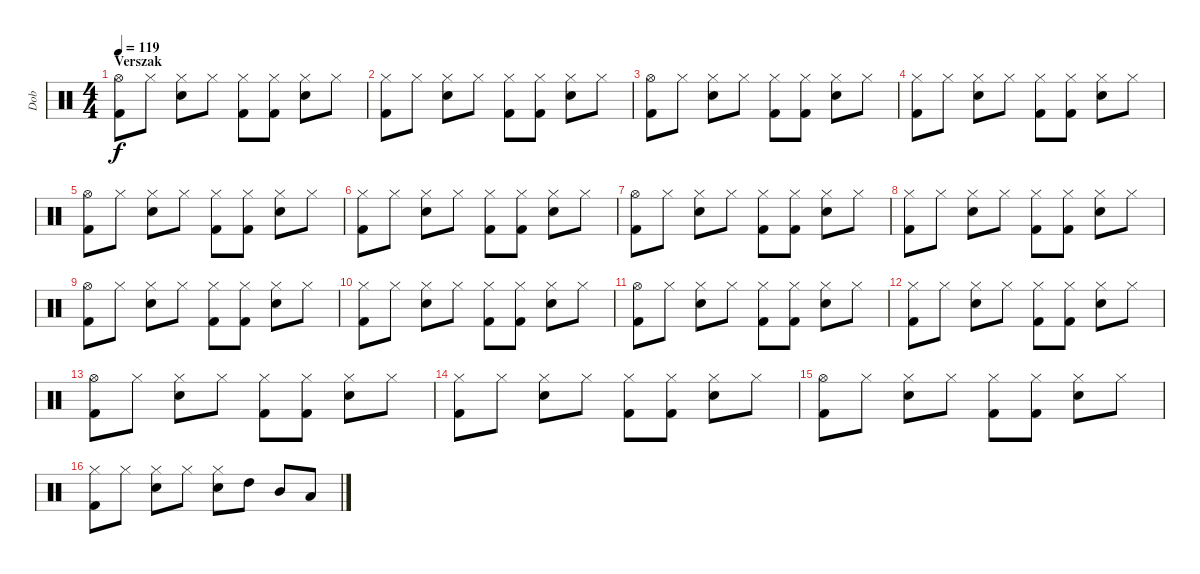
\track ("Dob" "Dob") {instrument percussion}
\staff {score}
\articulation defaults
\ts (4 4)
\section ("" "Verszak")
\tempo 119
\clef neutral
\ks c
("Hi-Hat (open)" "Kick (hit) 2").8{dy f} "Hi-Hat (closed)".8 ("Hi-Hat (closed)" "Snare (hit) 2").8 "Hi-Hat (closed)".8 ("Hi-Hat (closed)" "Kick (hit) 2").8 ("Hi-Hat (closed)" "Kick (hit) 2").8 ("Hi-Hat (closed)" "Snare (hit) 2").8 "Hi-Hat (closed)".8 |
("Hi-Hat (closed)" "Kick (hit) 2").8 "Hi-Hat (closed)".8 ("Hi-Hat (closed)" "Snare (hit) 2").8 "Hi-Hat (closed)".8 ("Hi-Hat (closed)" "Kick (hit) 2").8 ("Hi-Hat (closed)" "Kick (hit) 2").8 ("Hi-Hat (closed)" "Snare (hit) 2").8 "Hi-Hat (closed)".8 |
("Hi-Hat (open)" "Kick (hit) 2").8 "Hi-Hat (closed)".8 ("Hi-Hat (closed)" "Snare (hit) 2").8 "Hi-Hat (closed)".8 ("Hi-Hat (closed)" "Kick (hit) 2").8 ("Hi-Hat (closed)" "Kick (hit) 2").8 ("Hi-Hat (closed)" "Snare (hit) 2").8 "Hi-Hat (closed)".8 |
("Hi-Hat (closed)" "Kick (hit) 2").8 "Hi-Hat (closed)".8 ("Hi-Hat (closed)" "Snare (hit) 2").8 "Hi-Hat (closed)".8 ("Hi-Hat (closed)" "Kick (hit) 2").8 ("Hi-Hat (closed)" "Kick (hit) 2").8 ("Hi-Hat (closed)" "Snare (hit) 2").8 "Hi-Hat (closed)".8 |
("Hi-Hat (open)" "Kick (hit) 2").8 "Hi-Hat (closed)".8 ("Hi-Hat (closed)" "Snare (hit) 2").8 "Hi-Hat (closed)".8 ("Hi-Hat (closed)" "Kick (hit) 2").8 ("Hi-Hat (closed)" "Kick (hit) 2").8 ("Hi-Hat (closed)" "Snare (hit) 2").8 "Hi-Hat (closed)".8 |
("Hi-Hat (closed)" "Kick (hit) 2").8 "Hi-Hat (closed)".8 ("Hi-Hat (closed)" "Snare (hit) 2").8 "Hi-Hat (closed)".8 ("Hi-Hat (closed)" "Kick (hit) 2").8 ("Hi-Hat (closed)" "Kick (hit) 2").8 ("Hi-Hat (closed)" "Snare (hit) 2").8 "Hi-Hat (closed)".8 |
("Hi-Hat (open)" "Kick (hit) 2").8 "Hi-Hat (closed)".8 ("Hi-Hat (closed)" "Snare (hit) 2").8 "Hi-Hat (closed)".8 ("Hi-Hat (closed)" "Kick (hit) 2").8 ("Hi-Hat (closed)" "Kick (hit) 2").8 ("Hi-Hat (closed)" "Snare (hit) 2").8 "Hi-Hat (closed)".8 |
("Hi-Hat (closed)" "Kick (hit) 2").8 "Hi-Hat (closed)".8 ("Hi-Hat (closed)" "Snare (hit) 2").8 "Hi-Hat (closed)".8 ("Hi-Hat (closed)" "Kick (hit) 2").8 ("Hi-Hat (closed)" "Kick (hit) 2").8 ("Hi-Hat (closed)" "Snare (hit) 2").8 "Hi-Hat (closed)".8 |
("Hi-Hat (open)" "Kick (hit) 2").8 "Hi-Hat (closed)".8 ("Hi-Hat (closed)" "Snare (hit) 2").8 "Hi-Hat (closed)".8 ("Hi-Hat (closed)" "Kick (hit) 2").8 ("Hi-Hat (closed)" "Kick (hit) 2").8 ("Hi-Hat (closed)" "Snare (hit) 2").8 "Hi-Hat (closed)".8 |
("Hi-Hat (closed)" "Kick (hit) 2").8 "Hi-Hat (closed)".8 ("Hi-Hat (closed)" "Snare (hit) 2").8 "Hi-Hat (closed)".8 ("Hi-Hat (closed)" "Kick (hit) 2").8 ("Hi-Hat (closed)" "Kick (hit) 2").8 ("Hi-Hat (closed)" "Snare (hit) 2").8 "Hi-Hat (closed)".8 |
("Hi-Hat (open)" "Kick (hit) 2").8 "Hi-Hat (closed)".8 ("Hi-Hat (closed)" "Snare (hit) 2").8 "Hi-Hat (closed)".8 ("Hi-Hat (closed)" "Kick (hit) 2").8 ("Hi-Hat (closed)" "Kick (hit) 2").8 ("Hi-Hat (closed)" "Snare (hit) 2").8 "Hi-Hat (closed)".8 |
("Hi-Hat (closed)" "Kick (hit) 2").8 "Hi-Hat (closed)".8 ("Hi-Hat (closed)" "Snare (hit) 2").8 "Hi-Hat (closed)".8 ("Hi-Hat (closed)" "Kick (hit) 2").8 ("Hi-Hat (closed)" "Kick (hit) 2").8 ("Hi-Hat (closed)" "Snare (hit) 2").8 "Hi-Hat (closed)".8 |
("Hi-Hat (open)" "Kick (hit) 2").8 "Hi-Hat (closed)".8 ("Hi-Hat (closed)" "Snare (hit) 2").8 "Hi-Hat (closed)".8 ("Hi-Hat (closed)" "Kick (hit) 2").8 ("Hi-Hat (closed)" "Kick (hit) 2").8 ("Hi-Hat (closed)" "Snare (hit) 2").8 "Hi-Hat (closed)".8 |
("Hi-Hat (closed)" "Kick (hit) 2").8 "Hi-Hat (closed)".8 ("Hi-Hat (closed)" "Snare (hit) 2").8 "Hi-Hat (closed)".8 ("Hi-Hat (closed)" "Kick (hit) 2").8 ("Hi-Hat (closed)" "Kick (hit) 2").8 ("Hi-Hat (closed)" "Snare (hit) 2").8 "Hi-Hat (closed)".8 |
("Hi-Hat (open)" "Kick (hit) 2").8 "Hi-Hat (closed)".8 ("Hi-Hat (closed)" "Snare (hit) 2").8 "Hi-Hat (closed)".8 ("Hi-Hat (closed)" "Kick (hit) 2").8 ("Hi-Hat (closed)" "Kick (hit) 2").8 ("Hi-Hat (closed)" "Snare (hit) 2").8 "Hi-Hat (closed)".8 |
("Hi-Hat (closed)" "Kick (hit) 2").8 "Hi-Hat (closed)".8 ("Hi-Hat (closed)" "Snare (hit) 2").8 "Hi-Hat (closed)".8 ("Hi-Hat (closed)" "Snare (hit) 2").8 "High Tom (hit)".8 "Mid Tom (hit)".8 "Low Tom (hit)".8
